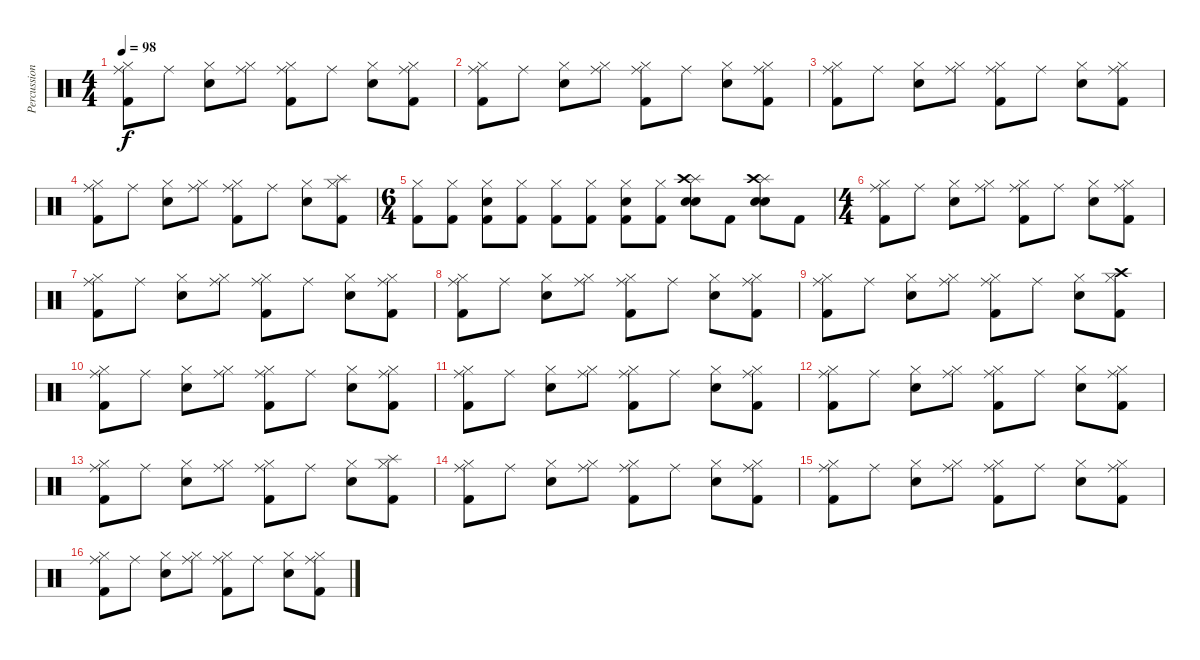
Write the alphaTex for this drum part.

\track ("Percussion" "Percussion") {instrument percussion}
\staff {score}
\articulation defaults
\ts (4 4)
\tempo 98
\clef neutral
\ks c
("Hi-Hat (closed)" "Kick (hit) 2" "Ride (middle)").8{dy f} "Ride (middle)".8 ("Hi-Hat (closed)" "Electric Snare (hit)").8 ("Hi-Hat (closed)" "Ride (middle)").8 ("Hi-Hat (closed)" "Kick (hit) 2" "Ride (middle)").8 "Ride (middle)".8 ("Hi-Hat (closed)" "Electric Snare (hit)").8 ("Hi-Hat (closed)" "Kick (hit) 2" "Ride (middle)").8 |
("Hi-Hat (closed)" "Kick (hit) 2" "Ride (middle)").8 "Ride (middle)".8 ("Hi-Hat (closed)" "Electric Snare (hit)").8 ("Hi-Hat (closed)" "Ride (middle)").8 ("Hi-Hat (closed)" "Kick (hit) 2" "Ride (middle)").8 "Ride (middle)".8 ("Hi-Hat (closed)" "Electric Snare (hit)").8 ("Hi-Hat (closed)" "Kick (hit) 2" "Ride (middle)").8 |
("Hi-Hat (closed)" "Kick (hit) 2" "Ride (middle)").8 "Ride (middle)".8 ("Hi-Hat (closed)" "Electric Snare (hit)").8 ("Hi-Hat (closed)" "Ride (middle)").8 ("Hi-Hat (closed)" "Kick (hit) 2" "Ride (middle)").8 "Ride (middle)".8 ("Hi-Hat (closed)" "Electric Snare (hit)").8 ("Hi-Hat (closed)" "Kick (hit) 2" "Ride (middle)").8 |
("Hi-Hat (closed)" "Kick (hit) 2" "Ride (middle)").8 "Ride (middle)".8 ("Hi-Hat (closed)" "Electric Snare (hit)").8 ("Hi-Hat (closed)" "Ride (middle)").8 ("Hi-Hat (closed)" "Kick (hit) 2" "Ride (middle)").8 "Ride (middle)".8 ("Hi-Hat (closed)" "Electric Snare (hit)").8 ("Hi-Hat (closed)" "Kick (hit) 2" "Splash (hit)").8 |
\ts (6 4)
("Hi-Hat (closed)" "Kick (hit) 2").8 ("Hi-Hat (closed)" "Kick (hit) 2").8 ("Hi-Hat (closed)" "Kick (hit) 2" "Electric Snare (hit)").8 ("Hi-Hat (closed)" "Kick (hit) 2").8 ("Hi-Hat (closed)" "Kick (hit) 2").8 ("Hi-Hat (closed)" "Kick (hit) 2").8 ("Hi-Hat (closed)" "Kick (hit) 2" "Electric Snare (hit)").8 ("Hi-Hat (closed)" "Kick (hit) 2").8 ("Splash (hit)" "Snare (hit) 2" "Electric Snare (hit)" "Crash high (hit)").8 "Kick (hit) 2".8 ("Splash (hit)" "Snare (hit) 2" "Electric Snare (hit)" "Crash high (hit)").8 "Kick (hit) 2".8 |
\ts (4 4)
("Hi-Hat (closed)" "Kick (hit) 2" "Ride (middle)").8 "Ride (middle)".8 ("Hi-Hat (closed)" "Electric Snare (hit)").8 ("Hi-Hat (closed)" "Ride (middle)").8 ("Hi-Hat (closed)" "Kick (hit) 2" "Ride (middle)").8 "Ride (middle)".8 ("Hi-Hat (closed)" "Electric Snare (hit)").8 ("Hi-Hat (closed)" "Kick (hit) 2" "Ride (middle)").8 |
("Hi-Hat (closed)" "Kick (hit) 2" "Ride (middle)").8 "Ride (middle)".8 ("Hi-Hat (closed)" "Electric Snare (hit)").8 ("Hi-Hat (closed)" "Ride (middle)").8 ("Hi-Hat (closed)" "Kick (hit) 2" "Ride (middle)").8 "Ride (middle)".8 ("Hi-Hat (closed)" "Electric Snare (hit)").8 ("Hi-Hat (closed)" "Kick (hit) 2" "Ride (middle)").8 |
("Hi-Hat (closed)" "Kick (hit) 2" "Ride (middle)").8 "Ride (middle)".8 ("Hi-Hat (closed)" "Electric Snare (hit)").8 ("Hi-Hat (closed)" "Ride (middle)").8 ("Hi-Hat (closed)" "Kick (hit) 2" "Ride (middle)").8 "Ride (middle)".8 ("Hi-Hat (closed)" "Electric Snare (hit)").8 ("Hi-Hat (closed)" "Kick (hit) 2" "Ride (middle)").8 |
("Hi-Hat (closed)" "Kick (hit) 2" "Ride (middle)").8 "Ride (middle)".8 ("Hi-Hat (closed)" "Electric Snare (hit)").8 ("Hi-Hat (closed)" "Ride (middle)").8 ("Hi-Hat (closed)" "Kick (hit) 2" "Ride (middle)").8 "Ride (middle)".8 ("Hi-Hat (closed)" "Electric Snare (hit)").8 ("Hi-Hat (closed)" "Kick (hit) 2" "Crash high (hit)").8 |
("Hi-Hat (closed)" "Kick (hit) 2" "Ride (middle)").8 "Ride (middle)".8 ("Hi-Hat (closed)" "Electric Snare (hit)").8 ("Hi-Hat (closed)" "Ride (middle)").8 ("Hi-Hat (closed)" "Kick (hit) 2" "Ride (middle)").8 "Ride (middle)".8 ("Hi-Hat (closed)" "Electric Snare (hit)").8 ("Hi-Hat (closed)" "Kick (hit) 2" "Ride (middle)").8 |
("Hi-Hat (closed)" "Kick (hit) 2" "Ride (middle)").8 "Ride (middle)".8 ("Hi-Hat (closed)" "Electric Snare (hit)").8 ("Hi-Hat (closed)" "Ride (middle)").8 ("Hi-Hat (closed)" "Kick (hit) 2" "Ride (middle)").8 "Ride (middle)".8 ("Hi-Hat (closed)" "Electric Snare (hit)").8 ("Hi-Hat (closed)" "Kick (hit) 2" "Ride (middle)").8 |
("Hi-Hat (closed)" "Kick (hit) 2" "Ride (middle)").8 "Ride (middle)".8 ("Hi-Hat (closed)" "Electric Snare (hit)").8 ("Hi-Hat (closed)" "Ride (middle)").8 ("Hi-Hat (closed)" "Kick (hit) 2" "Ride (middle)").8 "Ride (middle)".8 ("Hi-Hat (closed)" "Electric Snare (hit)").8 ("Hi-Hat (closed)" "Kick (hit) 2" "Ride (middle)").8 |
("Hi-Hat (closed)" "Kick (hit) 2" "Ride (middle)").8 "Ride (middle)".8 ("Hi-Hat (closed)" "Electric Snare (hit)").8 ("Hi-Hat (closed)" "Ride (middle)").8 ("Hi-Hat (closed)" "Kick (hit) 2" "Ride (middle)").8 "Ride (middle)".8 ("Hi-Hat (closed)" "Electric Snare (hit)").8 ("Hi-Hat (closed)" "Kick (hit) 2" "Splash (hit)").8 |
("Hi-Hat (closed)" "Kick (hit) 2" "Ride (middle)").8 "Ride (middle)".8 ("Hi-Hat (closed)" "Electric Snare (hit)").8 ("Hi-Hat (closed)" "Ride (middle)").8 ("Hi-Hat (closed)" "Kick (hit) 2" "Ride (middle)").8 "Ride (middle)".8 ("Hi-Hat (closed)" "Electric Snare (hit)").8 ("Hi-Hat (closed)" "Kick (hit) 2" "Ride (middle)").8 |
("Hi-Hat (closed)" "Kick (hit) 2" "Ride (middle)").8 "Ride (middle)".8 ("Hi-Hat (closed)" "Electric Snare (hit)").8 ("Hi-Hat (closed)" "Ride (middle)").8 ("Hi-Hat (closed)" "Kick (hit) 2" "Ride (middle)").8 "Ride (middle)".8 ("Hi-Hat (closed)" "Electric Snare (hit)").8 ("Hi-Hat (closed)" "Kick (hit) 2" "Ride (middle)").8 |
("Hi-Hat (closed)" "Kick (hit) 2" "Ride (middle)").8 "Ride (middle)".8 ("Hi-Hat (closed)" "Electric Snare (hit)").8 ("Hi-Hat (closed)" "Ride (middle)").8 ("Hi-Hat (closed)" "Kick (hit) 2" "Ride (middle)").8 "Ride (middle)".8 ("Hi-Hat (closed)" "Electric Snare (hit)").8 ("Hi-Hat (closed)" "Kick (hit) 2" "Ride (middle)").8
